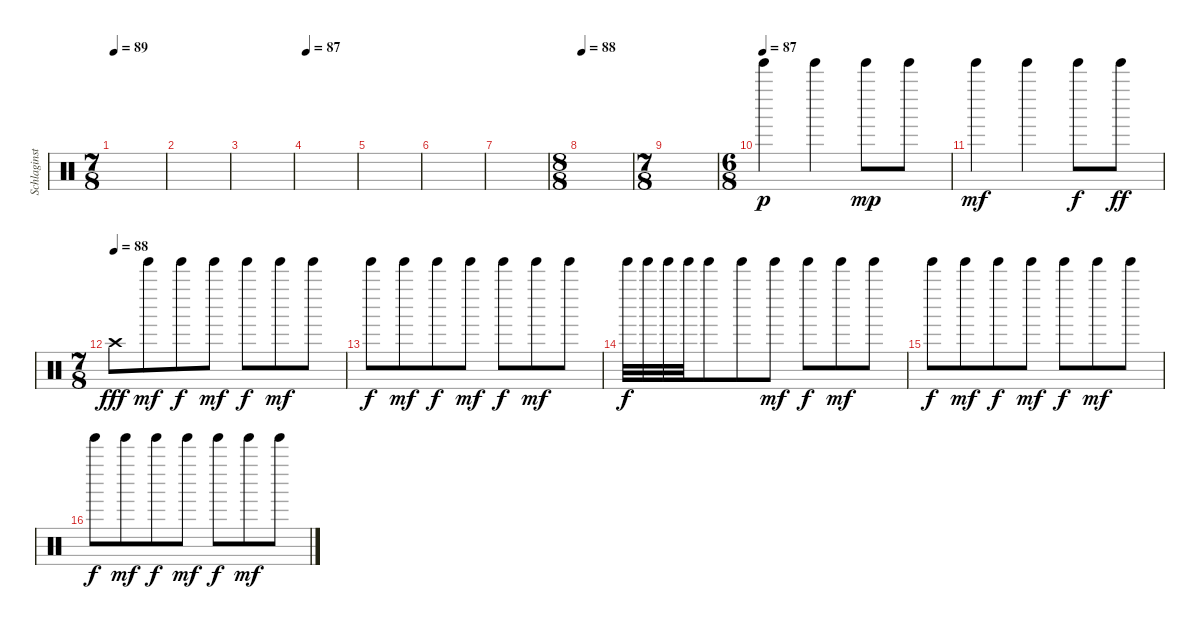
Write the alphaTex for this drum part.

\track ("Schlaginstrumente - Auswahl" "Schlaginst") {instrument percussion}
\staff {score}
\articulation defaults
\ts (7 8)
\tempo 89
\clef neutral
\ks c
|
|
|
\tempo 86
\tempo 87
|
|
|
|
\ts (8 8)
\tempo 88
|
\ts (7 8)
|
\ts (6 8)
\tempo (87)
"Tinkle Bell (hit)".4{dy p} "Tinkle Bell (hit)".4 "Tinkle Bell (hit)".8{dy mp} "Tinkle Bell (hit)".8 |
"Tinkle Bell (hit)".4{dy mf} "Tinkle Bell (hit)".4 "Tinkle Bell (hit)".8{dy f} "Tinkle Bell (hit)".8{dy ff} |
\ts (7 8)
\tempo (88)
"Crash high (hit)".8{dy fff} "Tinkle Bell (hit)".8{dy mf} "Tinkle Bell (hit)".8{dy f} "Tinkle Bell (hit)".8{dy mf} "Tinkle Bell (hit)".8{dy f} "Tinkle Bell (hit)".8{dy mf} "Tinkle Bell (hit)".8 |
"Tinkle Bell (hit)".8{dy f} "Tinkle Bell (hit)".8{dy mf} "Tinkle Bell (hit)".8{dy f} "Tinkle Bell (hit)".8{dy mf} "Tinkle Bell (hit)".8{dy f} "Tinkle Bell (hit)".8{dy mf} "Tinkle Bell (hit)".8 |
"Tinkle Bell (hit)".32{dy f} "Tinkle Bell (hit)".32 "Tinkle Bell (hit)".32 "Tinkle Bell (hit)".32 "Tinkle Bell (hit)".8 "Tinkle Bell (hit)".8 "Tinkle Bell (hit)".8{dy mf} "Tinkle Bell (hit)".8{dy f} "Tinkle Bell (hit)".8{dy mf} "Tinkle Bell (hit)".8 |
"Tinkle Bell (hit)".8{dy f} "Tinkle Bell (hit)".8{dy mf} "Tinkle Bell (hit)".8{dy f} "Tinkle Bell (hit)".8{dy mf} "Tinkle Bell (hit)".8{dy f} "Tinkle Bell (hit)".8{dy mf} "Tinkle Bell (hit)".8 |
"Tinkle Bell (hit)".8{dy f} "Tinkle Bell (hit)".8{dy mf} "Tinkle Bell (hit)".8{dy f} "Tinkle Bell (hit)".8{dy mf} "Tinkle Bell (hit)".8{dy f} "Tinkle Bell (hit)".8{dy mf} "Tinkle Bell (hit)".8
